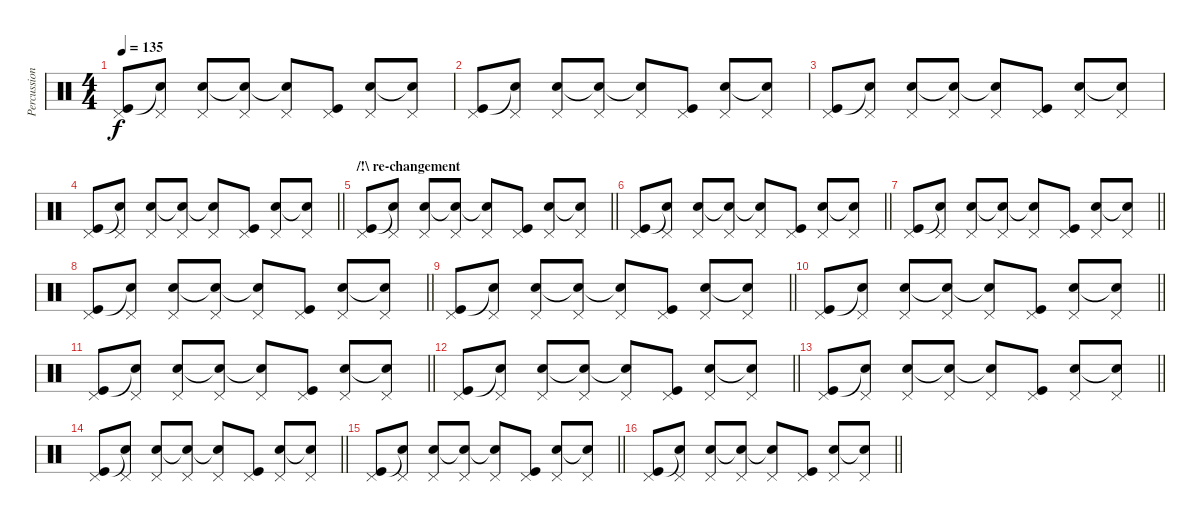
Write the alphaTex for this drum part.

\track ("Percussions" "Percussion") {instrument percussion}
\staff {score}
\articulation defaults
\ts (4 4)
\tempo 135
\clef neutral
\ks c
("Pedal Hi-Hat (hit)" "Kick (hit)").8{dy f} ("Pedal Hi-Hat (hit)" "Snare (hit)"{t}).8 ("Pedal Hi-Hat (hit)" "Electric Snare (hit)").8 ("Pedal Hi-Hat (hit)" "Snare (hit)"{t}).8 ("Pedal Hi-Hat (hit)" "Snare (hit)"{t}).8 ("Pedal Hi-Hat (hit)" "Kick (hit)").8 ("Pedal Hi-Hat (hit)" "Electric Snare (hit)").8 ("Pedal Hi-Hat (hit)" "Snare (hit)"{t}).8 |
("Pedal Hi-Hat (hit)" "Kick (hit)").8 ("Pedal Hi-Hat (hit)" "Snare (hit)"{t}).8 ("Pedal Hi-Hat (hit)" "Electric Snare (hit)").8 ("Pedal Hi-Hat (hit)" "Snare (hit)"{t}).8 ("Pedal Hi-Hat (hit)" "Snare (hit)"{t}).8 ("Pedal Hi-Hat (hit)" "Kick (hit)").8 ("Pedal Hi-Hat (hit)" "Electric Snare (hit)").8 ("Pedal Hi-Hat (hit)" "Snare (hit)"{t}).8 |
("Pedal Hi-Hat (hit)" "Kick (hit)").8 ("Pedal Hi-Hat (hit)" "Snare (hit)"{t}).8 ("Pedal Hi-Hat (hit)" "Electric Snare (hit)").8 ("Pedal Hi-Hat (hit)" "Snare (hit)"{t}).8 ("Pedal Hi-Hat (hit)" "Snare (hit)"{t}).8 ("Pedal Hi-Hat (hit)" "Kick (hit)").8 ("Pedal Hi-Hat (hit)" "Electric Snare (hit)").8 ("Pedal Hi-Hat (hit)" "Snare (hit)"{t}).8 |
\barLineRight lightlight
("Pedal Hi-Hat (hit)" "Kick (hit)").8 ("Pedal Hi-Hat (hit)" "Snare (hit)"{t}).8 ("Pedal Hi-Hat (hit)" "Electric Snare (hit)").8 ("Pedal Hi-Hat (hit)" "Snare (hit)"{t}).8 ("Pedal Hi-Hat (hit)" "Snare (hit)"{t}).8 ("Pedal Hi-Hat (hit)" "Kick (hit)").8 ("Pedal Hi-Hat (hit)" "Electric Snare (hit)").8 ("Pedal Hi-Hat (hit)" "Snare (hit)"{t}).8 |
\section ("" "/!\\ re-changement")
\barLineRight lightlight
("Pedal Hi-Hat (hit)" "Kick (hit)").8 ("Pedal Hi-Hat (hit)" "Snare (hit)"{t}).8 ("Pedal Hi-Hat (hit)" "Electric Snare (hit)").8 ("Pedal Hi-Hat (hit)" "Snare (hit)"{t}).8 ("Pedal Hi-Hat (hit)" "Snare (hit)"{t}).8 ("Pedal Hi-Hat (hit)" "Kick (hit)").8 ("Pedal Hi-Hat (hit)" "Electric Snare (hit)").8 ("Pedal Hi-Hat (hit)" "Snare (hit)"{t}).8 |
\barLineRight lightlight
("Pedal Hi-Hat (hit)" "Kick (hit)").8 ("Pedal Hi-Hat (hit)" "Snare (hit)"{t}).8 ("Pedal Hi-Hat (hit)" "Electric Snare (hit)").8 ("Pedal Hi-Hat (hit)" "Snare (hit)"{t}).8 ("Pedal Hi-Hat (hit)" "Snare (hit)"{t}).8 ("Pedal Hi-Hat (hit)" "Kick (hit)").8 ("Pedal Hi-Hat (hit)" "Electric Snare (hit)").8 ("Pedal Hi-Hat (hit)" "Snare (hit)"{t}).8 |
\barLineRight lightlight
("Pedal Hi-Hat (hit)" "Kick (hit)").8 ("Pedal Hi-Hat (hit)" "Snare (hit)"{t}).8 ("Pedal Hi-Hat (hit)" "Electric Snare (hit)").8 ("Pedal Hi-Hat (hit)" "Snare (hit)"{t}).8 ("Pedal Hi-Hat (hit)" "Snare (hit)"{t}).8 ("Pedal Hi-Hat (hit)" "Kick (hit)").8 ("Pedal Hi-Hat (hit)" "Electric Snare (hit)").8 ("Pedal Hi-Hat (hit)" "Snare (hit)"{t}).8 |
\barLineRight lightlight
("Pedal Hi-Hat (hit)" "Kick (hit)").8 ("Pedal Hi-Hat (hit)" "Snare (hit)"{t}).8 ("Pedal Hi-Hat (hit)" "Electric Snare (hit)").8 ("Pedal Hi-Hat (hit)" "Snare (hit)"{t}).8 ("Pedal Hi-Hat (hit)" "Snare (hit)"{t}).8 ("Pedal Hi-Hat (hit)" "Kick (hit)").8 ("Pedal Hi-Hat (hit)" "Electric Snare (hit)").8 ("Pedal Hi-Hat (hit)" "Snare (hit)"{t}).8 |
\barLineRight lightlight
("Pedal Hi-Hat (hit)" "Kick (hit)").8 ("Pedal Hi-Hat (hit)" "Snare (hit)"{t}).8 ("Pedal Hi-Hat (hit)" "Electric Snare (hit)").8 ("Pedal Hi-Hat (hit)" "Snare (hit)"{t}).8 ("Pedal Hi-Hat (hit)" "Snare (hit)"{t}).8 ("Pedal Hi-Hat (hit)" "Kick (hit)").8 ("Pedal Hi-Hat (hit)" "Electric Snare (hit)").8 ("Pedal Hi-Hat (hit)" "Snare (hit)"{t}).8 |
\barLineRight lightlight
("Pedal Hi-Hat (hit)" "Kick (hit)").8 ("Pedal Hi-Hat (hit)" "Snare (hit)"{t}).8 ("Pedal Hi-Hat (hit)" "Electric Snare (hit)").8 ("Pedal Hi-Hat (hit)" "Snare (hit)"{t}).8 ("Pedal Hi-Hat (hit)" "Snare (hit)"{t}).8 ("Pedal Hi-Hat (hit)" "Kick (hit)").8 ("Pedal Hi-Hat (hit)" "Electric Snare (hit)").8 ("Pedal Hi-Hat (hit)" "Snare (hit)"{t}).8 |
\barLineRight lightlight
("Pedal Hi-Hat (hit)" "Kick (hit)").8 ("Pedal Hi-Hat (hit)" "Snare (hit)"{t}).8 ("Pedal Hi-Hat (hit)" "Electric Snare (hit)").8 ("Pedal Hi-Hat (hit)" "Snare (hit)"{t}).8 ("Pedal Hi-Hat (hit)" "Snare (hit)"{t}).8 ("Pedal Hi-Hat (hit)" "Kick (hit)").8 ("Pedal Hi-Hat (hit)" "Electric Snare (hit)").8 ("Pedal Hi-Hat (hit)" "Snare (hit)"{t}).8 |
\barLineRight lightlight
("Pedal Hi-Hat (hit)" "Kick (hit)").8 ("Pedal Hi-Hat (hit)" "Snare (hit)"{t}).8 ("Pedal Hi-Hat (hit)" "Electric Snare (hit)").8 ("Pedal Hi-Hat (hit)" "Snare (hit)"{t}).8 ("Pedal Hi-Hat (hit)" "Snare (hit)"{t}).8 ("Pedal Hi-Hat (hit)" "Kick (hit)").8 ("Pedal Hi-Hat (hit)" "Electric Snare (hit)").8 ("Pedal Hi-Hat (hit)" "Snare (hit)"{t}).8 |
\barLineRight lightlight
("Pedal Hi-Hat (hit)" "Kick (hit)").8 ("Pedal Hi-Hat (hit)" "Snare (hit)"{t}).8 ("Pedal Hi-Hat (hit)" "Electric Snare (hit)").8 ("Pedal Hi-Hat (hit)" "Snare (hit)"{t}).8 ("Pedal Hi-Hat (hit)" "Snare (hit)"{t}).8 ("Pedal Hi-Hat (hit)" "Kick (hit)").8 ("Pedal Hi-Hat (hit)" "Electric Snare (hit)").8 ("Pedal Hi-Hat (hit)" "Snare (hit)"{t}).8 |
\barLineRight lightlight
("Pedal Hi-Hat (hit)" "Kick (hit)").8 ("Pedal Hi-Hat (hit)" "Snare (hit)"{t}).8 ("Pedal Hi-Hat (hit)" "Electric Snare (hit)").8 ("Pedal Hi-Hat (hit)" "Snare (hit)"{t}).8 ("Pedal Hi-Hat (hit)" "Snare (hit)"{t}).8 ("Pedal Hi-Hat (hit)" "Kick (hit)").8 ("Pedal Hi-Hat (hit)" "Electric Snare (hit)").8 ("Pedal Hi-Hat (hit)" "Snare (hit)"{t}).8 |
\barLineRight lightlight
("Pedal Hi-Hat (hit)" "Kick (hit)").8 ("Pedal Hi-Hat (hit)" "Snare (hit)"{t}).8 ("Pedal Hi-Hat (hit)" "Electric Snare (hit)").8 ("Pedal Hi-Hat (hit)" "Snare (hit)"{t}).8 ("Pedal Hi-Hat (hit)" "Snare (hit)"{t}).8 ("Pedal Hi-Hat (hit)" "Kick (hit)").8 ("Pedal Hi-Hat (hit)" "Electric Snare (hit)").8 ("Pedal Hi-Hat (hit)" "Snare (hit)"{t}).8 |
\barLineRight lightlight
("Pedal Hi-Hat (hit)" "Kick (hit)").8 ("Pedal Hi-Hat (hit)" "Snare (hit)"{t}).8 ("Pedal Hi-Hat (hit)" "Electric Snare (hit)").8 ("Pedal Hi-Hat (hit)" "Snare (hit)"{t}).8 ("Pedal Hi-Hat (hit)" "Snare (hit)"{t}).8 ("Pedal Hi-Hat (hit)" "Kick (hit)").8 ("Pedal Hi-Hat (hit)" "Electric Snare (hit)").8 ("Pedal Hi-Hat (hit)" "Snare (hit)"{t}).8
